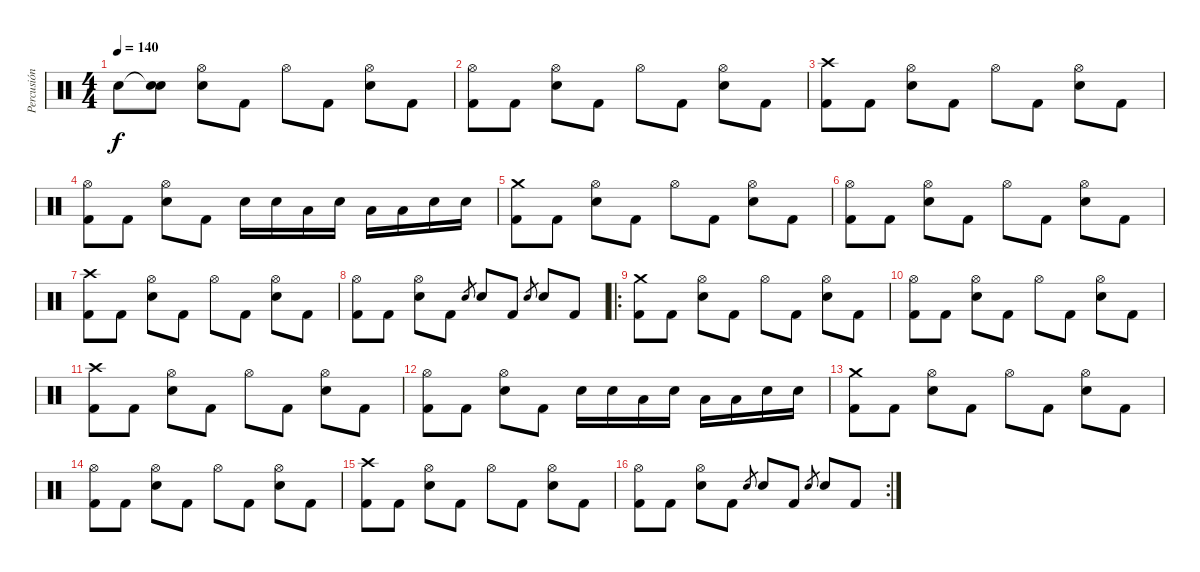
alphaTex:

\track ("Percusión" "Percusión") {instrument percussion}
\staff {score}
\articulation defaults
\ts (4 4)
\tempo 140
\clef neutral
\ks c "Snare (hit)"{t}.8{dy f}
("Snare (hit)"{t} "Snare (hit)"{t}).8 ("Hi-Hat (open)" "Electric Snare (hit)").8 "Kick (hit) 2".8 "Hi-Hat (open)".8 "Kick (hit) 2".8 ("Hi-Hat (open)" "Electric Snare (hit)").8 "Kick (hit) 2".8 |
("Hi-Hat (open)" "Kick (hit) 2").8 "Kick (hit) 2".8 ("Hi-Hat (open)" "Electric Snare (hit)").8 "Kick (hit) 2".8 "Hi-Hat (open)".8 "Kick (hit) 2".8 ("Hi-Hat (open)" "Electric Snare (hit)").8 "Kick (hit) 2".8 |
("Crash high (hit)" "Kick (hit) 2").8 "Kick (hit) 2".8 ("Hi-Hat (open)" "Electric Snare (hit)").8 "Kick (hit) 2".8 "Hi-Hat (open)".8 "Kick (hit) 2".8 ("Hi-Hat (open)" "Electric Snare (hit)").8 "Kick (hit) 2".8 |
("Hi-Hat (open)" "Kick (hit) 2").8 "Kick (hit) 2".8 ("Hi-Hat (open)" "Electric Snare (hit)").8 "Kick (hit) 2".8 "Electric Snare (hit)".16 "Electric Snare (hit)".16 "Low Tom (hit)".16 "Electric Snare (hit)".16 "Low Tom (hit)".16 "Low Tom (hit)".16 "Electric Snare (hit)".16 "Electric Snare (hit)".16 |
("Crash medium (hit)" "Kick (hit) 2").8 "Kick (hit) 2".8 ("Hi-Hat (open)" "Electric Snare (hit)").8 "Kick (hit) 2".8 "Hi-Hat (open)".8 "Kick (hit) 2".8 ("Hi-Hat (open)" "Electric Snare (hit)").8 "Kick (hit) 2".8 |
("Hi-Hat (open)" "Kick (hit) 2").8 "Kick (hit) 2".8 ("Hi-Hat (open)" "Electric Snare (hit)").8 "Kick (hit) 2".8 "Hi-Hat (open)".8 "Kick (hit) 2".8 ("Hi-Hat (open)" "Electric Snare (hit)").8 "Kick (hit) 2".8 |
("Crash high (hit)" "Kick (hit) 2").8 "Kick (hit) 2".8 ("Hi-Hat (open)" "Electric Snare (hit)").8 "Kick (hit) 2".8 "Hi-Hat (open)".8 "Kick (hit) 2".8 ("Hi-Hat (open)" "Electric Snare (hit)").8 "Kick (hit) 2".8 |
("Hi-Hat (open)" "Kick (hit) 2").8 "Kick (hit) 2".8 ("Hi-Hat (open)" "Electric Snare (hit)").8 "Kick (hit) 2".8 "Electric Snare (hit)".8{gr} "Electric Snare (hit)".8 "Kick (hit) 2".8 "Electric Snare (hit)".8{gr} "Electric Snare (hit)".8 "Kick (hit) 2".8 |
\ro
("Crash medium (hit)" "Kick (hit) 2").8 "Kick (hit) 2".8 ("Hi-Hat (open)" "Electric Snare (hit)").8 "Kick (hit) 2".8 "Hi-Hat (open)".8 "Kick (hit) 2".8 ("Hi-Hat (open)" "Electric Snare (hit)").8 "Kick (hit) 2".8 |
("Hi-Hat (open)" "Kick (hit) 2").8 "Kick (hit) 2".8 ("Hi-Hat (open)" "Electric Snare (hit)").8 "Kick (hit) 2".8 "Hi-Hat (open)".8 "Kick (hit) 2".8 ("Hi-Hat (open)" "Electric Snare (hit)").8 "Kick (hit) 2".8 |
("Crash high (hit)" "Kick (hit) 2").8 "Kick (hit) 2".8 ("Hi-Hat (open)" "Electric Snare (hit)").8 "Kick (hit) 2".8 "Hi-Hat (open)".8 "Kick (hit) 2".8 ("Hi-Hat (open)" "Electric Snare (hit)").8 "Kick (hit) 2".8 |
("Hi-Hat (open)" "Kick (hit) 2").8 "Kick (hit) 2".8 ("Hi-Hat (open)" "Electric Snare (hit)").8 "Kick (hit) 2".8 "Electric Snare (hit)".16 "Electric Snare (hit)".16 "Low Tom (hit)".16 "Electric Snare (hit)".16 "Low Tom (hit)".16 "Low Tom (hit)".16 "Electric Snare (hit)".16 "Electric Snare (hit)".16 |
("Crash medium (hit)" "Kick (hit) 2").8 "Kick (hit) 2".8 ("Hi-Hat (open)" "Electric Snare (hit)").8 "Kick (hit) 2".8 "Hi-Hat (open)".8 "Kick (hit) 2".8 ("Hi-Hat (open)" "Electric Snare (hit)").8 "Kick (hit) 2".8 |
("Hi-Hat (open)" "Kick (hit) 2").8 "Kick (hit) 2".8 ("Hi-Hat (open)" "Electric Snare (hit)").8 "Kick (hit) 2".8 "Hi-Hat (open)".8 "Kick (hit) 2".8 ("Hi-Hat (open)" "Electric Snare (hit)").8 "Kick (hit) 2".8 |
("Crash high (hit)" "Kick (hit) 2").8 "Kick (hit) 2".8 ("Hi-Hat (open)" "Electric Snare (hit)").8 "Kick (hit) 2".8 "Hi-Hat (open)".8 "Kick (hit) 2".8 ("Hi-Hat (open)" "Electric Snare (hit)").8 "Kick (hit) 2".8 |
\rc 2
("Hi-Hat (open)" "Kick (hit) 2").8 "Kick (hit) 2".8 ("Hi-Hat (open)" "Electric Snare (hit)").8 "Kick (hit) 2".8 "Electric Snare (hit)".8{gr} "Electric Snare (hit)".8 "Kick (hit) 2".8 "Electric Snare (hit)".8{gr} "Electric Snare (hit)".8 "Kick (hit) 2".8
